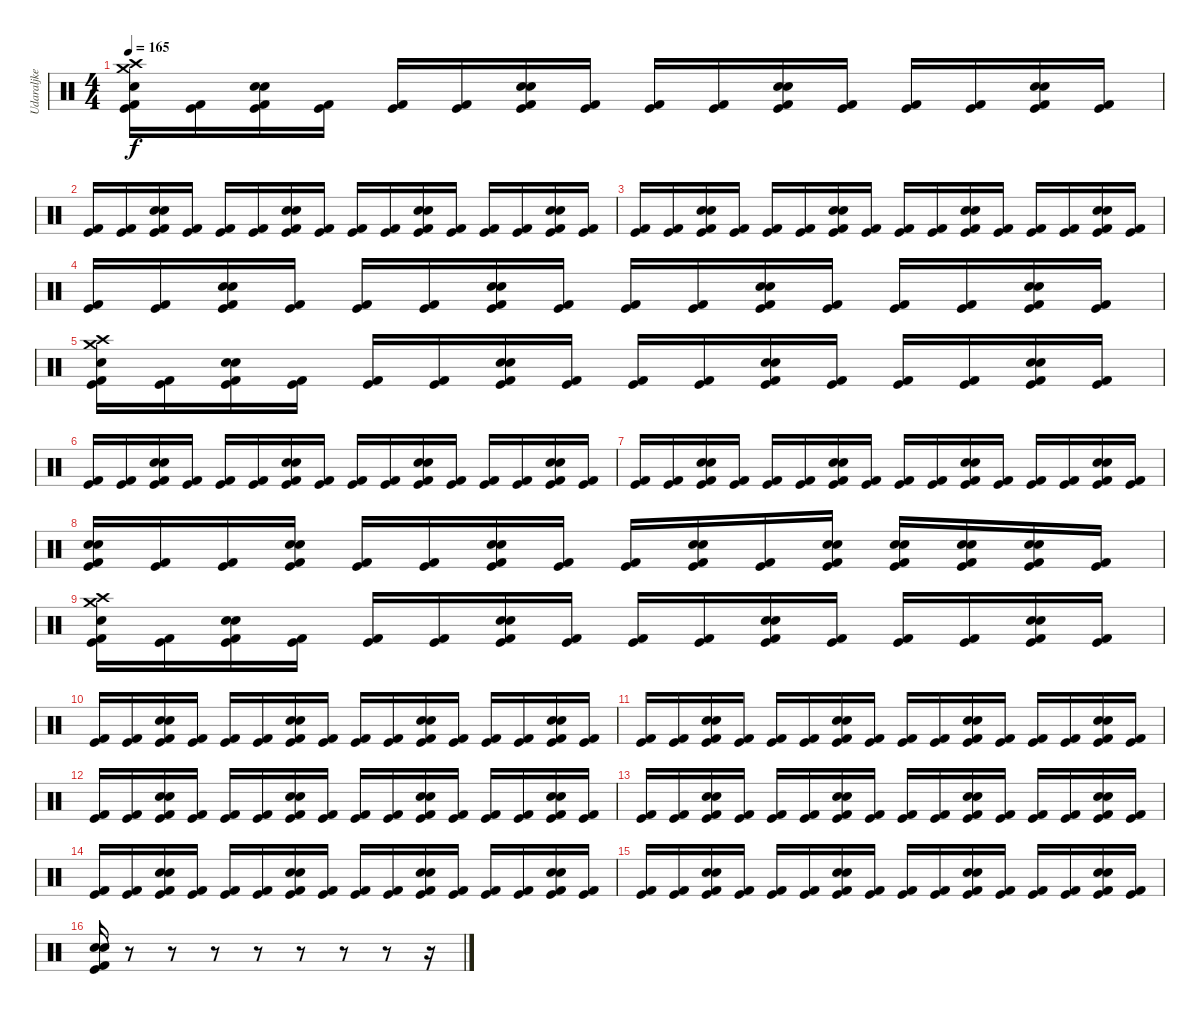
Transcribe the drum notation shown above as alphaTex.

\track ("Udaraljke" "Udaraljke") {instrument percussion}
\staff {score}
\articulation defaults
\ts (4 4)
\tempo 165
\clef neutral
\ks c
("Crash medium (hit)" "Crash high (hit)" "Snare (hit) 2" "Kick (hit) 2" "Kick (hit)").16{dy f} ("Kick (hit) 2" "Kick (hit)").16 ("Snare (hit) 2" "Snare (hit) 2" "Kick (hit) 2" "Kick (hit)").16 ("Kick (hit) 2" "Kick (hit)").16 ("Kick (hit) 2" "Kick (hit)").16 ("Kick (hit) 2" "Kick (hit)").16 ("Snare (hit) 2" "Snare (hit) 2" "Kick (hit) 2" "Kick (hit)").16 ("Kick (hit) 2" "Kick (hit)").16 ("Kick (hit) 2" "Kick (hit)").16 ("Kick (hit) 2" "Kick (hit)").16 ("Snare (hit) 2" "Snare (hit) 2" "Kick (hit) 2" "Kick (hit)").16 ("Kick (hit) 2" "Kick (hit)").16 ("Kick (hit) 2" "Kick (hit)").16 ("Kick (hit) 2" "Kick (hit)").16 ("Snare (hit) 2" "Snare (hit) 2" "Kick (hit) 2" "Kick (hit)").16 ("Kick (hit) 2" "Kick (hit)").16 |
("Kick (hit) 2" "Kick (hit)").16 ("Kick (hit) 2" "Kick (hit)").16 ("Snare (hit) 2" "Snare (hit) 2" "Kick (hit) 2" "Kick (hit)").16 ("Kick (hit) 2" "Kick (hit)").16 ("Kick (hit) 2" "Kick (hit)").16 ("Kick (hit) 2" "Kick (hit)").16 ("Snare (hit) 2" "Snare (hit) 2" "Kick (hit) 2" "Kick (hit)").16 ("Kick (hit) 2" "Kick (hit)").16 ("Kick (hit) 2" "Kick (hit)").16 ("Kick (hit) 2" "Kick (hit)").16 ("Snare (hit) 2" "Snare (hit) 2" "Kick (hit) 2" "Kick (hit)").16 ("Kick (hit) 2" "Kick (hit)").16 ("Kick (hit) 2" "Kick (hit)").16 ("Kick (hit) 2" "Kick (hit)").16 ("Snare (hit) 2" "Snare (hit) 2" "Kick (hit) 2" "Kick (hit)").16 ("Kick (hit) 2" "Kick (hit)").16 |
("Kick (hit) 2" "Kick (hit)").16 ("Kick (hit) 2" "Kick (hit)").16 ("Snare (hit) 2" "Snare (hit) 2" "Kick (hit) 2" "Kick (hit)").16 ("Kick (hit) 2" "Kick (hit)").16 ("Kick (hit) 2" "Kick (hit)").16 ("Kick (hit) 2" "Kick (hit)").16 ("Snare (hit) 2" "Snare (hit) 2" "Kick (hit) 2" "Kick (hit)").16 ("Kick (hit) 2" "Kick (hit)").16 ("Kick (hit) 2" "Kick (hit)").16 ("Kick (hit) 2" "Kick (hit)").16 ("Snare (hit) 2" "Snare (hit) 2" "Kick (hit) 2" "Kick (hit)").16 ("Kick (hit) 2" "Kick (hit)").16 ("Kick (hit) 2" "Kick (hit)").16 ("Kick (hit) 2" "Kick (hit)").16 ("Snare (hit) 2" "Snare (hit) 2" "Kick (hit) 2" "Kick (hit)").16 ("Kick (hit) 2" "Kick (hit)").16 |
("Kick (hit) 2" "Kick (hit)").16 ("Kick (hit) 2" "Kick (hit)").16 ("Snare (hit) 2" "Snare (hit) 2" "Kick (hit) 2" "Kick (hit)").16 ("Kick (hit) 2" "Kick (hit)").16 ("Kick (hit) 2" "Kick (hit)").16 ("Kick (hit) 2" "Kick (hit)").16 ("Snare (hit) 2" "Snare (hit) 2" "Kick (hit) 2" "Kick (hit)").16 ("Kick (hit) 2" "Kick (hit)").16 ("Kick (hit) 2" "Kick (hit)").16 ("Kick (hit) 2" "Kick (hit)").16 ("Snare (hit) 2" "Snare (hit) 2" "Kick (hit) 2" "Kick (hit)").16 ("Kick (hit) 2" "Kick (hit)").16 ("Kick (hit) 2" "Kick (hit)").16 ("Kick (hit) 2" "Kick (hit)").16 ("Snare (hit) 2" "Snare (hit) 2" "Kick (hit) 2" "Kick (hit)").16 ("Kick (hit) 2" "Kick (hit)").16 |
("Crash medium (hit)" "Crash high (hit)" "Snare (hit) 2" "Kick (hit) 2" "Kick (hit)").16 ("Kick (hit) 2" "Kick (hit)").16 ("Snare (hit) 2" "Snare (hit) 2" "Kick (hit) 2" "Kick (hit)").16 ("Kick (hit) 2" "Kick (hit)").16 ("Kick (hit) 2" "Kick (hit)").16 ("Kick (hit) 2" "Kick (hit)").16 ("Snare (hit) 2" "Snare (hit) 2" "Kick (hit) 2" "Kick (hit)").16 ("Kick (hit) 2" "Kick (hit)").16 ("Kick (hit) 2" "Kick (hit)").16 ("Kick (hit) 2" "Kick (hit)").16 ("Snare (hit) 2" "Snare (hit) 2" "Kick (hit) 2" "Kick (hit)").16 ("Kick (hit) 2" "Kick (hit)").16 ("Kick (hit) 2" "Kick (hit)").16 ("Kick (hit) 2" "Kick (hit)").16 ("Snare (hit) 2" "Snare (hit) 2" "Kick (hit) 2" "Kick (hit)").16 ("Kick (hit) 2" "Kick (hit)").16 |
("Kick (hit) 2" "Kick (hit)").16 ("Kick (hit) 2" "Kick (hit)").16 ("Snare (hit) 2" "Snare (hit) 2" "Kick (hit) 2" "Kick (hit)").16 ("Kick (hit) 2" "Kick (hit)").16 ("Kick (hit) 2" "Kick (hit)").16 ("Kick (hit) 2" "Kick (hit)").16 ("Snare (hit) 2" "Snare (hit) 2" "Kick (hit) 2" "Kick (hit)").16 ("Kick (hit) 2" "Kick (hit)").16 ("Kick (hit) 2" "Kick (hit)").16 ("Kick (hit) 2" "Kick (hit)").16 ("Snare (hit) 2" "Snare (hit) 2" "Kick (hit) 2" "Kick (hit)").16 ("Kick (hit) 2" "Kick (hit)").16 ("Kick (hit) 2" "Kick (hit)").16 ("Kick (hit) 2" "Kick (hit)").16 ("Snare (hit) 2" "Snare (hit) 2" "Kick (hit) 2" "Kick (hit)").16 ("Kick (hit) 2" "Kick (hit)").16 |
("Kick (hit) 2" "Kick (hit)").16 ("Kick (hit) 2" "Kick (hit)").16 ("Snare (hit) 2" "Snare (hit) 2" "Kick (hit) 2" "Kick (hit)").16 ("Kick (hit) 2" "Kick (hit)").16 ("Kick (hit) 2" "Kick (hit)").16 ("Kick (hit) 2" "Kick (hit)").16 ("Snare (hit) 2" "Snare (hit) 2" "Kick (hit) 2" "Kick (hit)").16 ("Kick (hit) 2" "Kick (hit)").16 ("Kick (hit) 2" "Kick (hit)").16 ("Kick (hit) 2" "Kick (hit)").16 ("Snare (hit) 2" "Snare (hit) 2" "Kick (hit) 2" "Kick (hit)").16 ("Kick (hit) 2" "Kick (hit)").16 ("Kick (hit) 2" "Kick (hit)").16 ("Kick (hit) 2" "Kick (hit)").16 ("Snare (hit) 2" "Snare (hit) 2" "Kick (hit) 2" "Kick (hit)").16 ("Kick (hit) 2" "Kick (hit)").16 |
("Snare (hit) 2" "Snare (hit) 2" "Kick (hit) 2" "Kick (hit)").16 ("Kick (hit) 2" "Kick (hit)").16 ("Kick (hit) 2" "Kick (hit)").16 ("Snare (hit) 2" "Snare (hit) 2" "Kick (hit) 2" "Kick (hit)").16 ("Kick (hit) 2" "Kick (hit)").16 ("Kick (hit) 2" "Kick (hit)").16 ("Snare (hit) 2" "Snare (hit) 2" "Kick (hit) 2" "Kick (hit)").16 ("Kick (hit) 2" "Kick (hit)").16 ("Kick (hit) 2" "Kick (hit)").16 ("Snare (hit) 2" "Snare (hit) 2" "Kick (hit) 2" "Kick (hit)").16 ("Kick (hit) 2" "Kick (hit)").16 ("Snare (hit) 2" "Snare (hit) 2" "Kick (hit) 2" "Kick (hit)").16 ("Snare (hit) 2" "Snare (hit) 2" "Kick (hit) 2" "Kick (hit)").16 ("Snare (hit) 2" "Snare (hit) 2" "Kick (hit) 2" "Kick (hit)").16 ("Snare (hit) 2" "Snare (hit) 2" "Kick (hit) 2" "Kick (hit)").16 ("Kick (hit) 2" "Kick (hit)").16 |
("Crash medium (hit)" "Crash high (hit)" "Snare (hit) 2" "Kick (hit) 2" "Kick (hit)").16 ("Kick (hit) 2" "Kick (hit)").16 ("Snare (hit) 2" "Snare (hit) 2" "Kick (hit) 2" "Kick (hit)").16 ("Kick (hit) 2" "Kick (hit)").16 ("Kick (hit) 2" "Kick (hit)").16 ("Kick (hit) 2" "Kick (hit)").16 ("Snare (hit) 2" "Snare (hit) 2" "Kick (hit) 2" "Kick (hit)").16 ("Kick (hit) 2" "Kick (hit)").16 ("Kick (hit) 2" "Kick (hit)").16 ("Kick (hit) 2" "Kick (hit)").16 ("Snare (hit) 2" "Snare (hit) 2" "Kick (hit) 2" "Kick (hit)").16 ("Kick (hit) 2" "Kick (hit)").16 ("Kick (hit) 2" "Kick (hit)").16 ("Kick (hit) 2" "Kick (hit)").16 ("Snare (hit) 2" "Snare (hit) 2" "Kick (hit) 2" "Kick (hit)").16 ("Kick (hit) 2" "Kick (hit)").16 |
("Kick (hit) 2" "Kick (hit)").16 ("Kick (hit) 2" "Kick (hit)").16 ("Snare (hit) 2" "Snare (hit) 2" "Kick (hit) 2" "Kick (hit)").16 ("Kick (hit) 2" "Kick (hit)").16 ("Kick (hit) 2" "Kick (hit)").16 ("Kick (hit) 2" "Kick (hit)").16 ("Snare (hit) 2" "Snare (hit) 2" "Kick (hit) 2" "Kick (hit)").16 ("Kick (hit) 2" "Kick (hit)").16 ("Kick (hit) 2" "Kick (hit)").16 ("Kick (hit) 2" "Kick (hit)").16 ("Snare (hit) 2" "Snare (hit) 2" "Kick (hit) 2" "Kick (hit)").16 ("Kick (hit) 2" "Kick (hit)").16 ("Kick (hit) 2" "Kick (hit)").16 ("Kick (hit) 2" "Kick (hit)").16 ("Snare (hit) 2" "Snare (hit) 2" "Kick (hit) 2" "Kick (hit)").16 ("Kick (hit) 2" "Kick (hit)").16 |
("Kick (hit) 2" "Kick (hit)").16 ("Kick (hit) 2" "Kick (hit)").16 ("Snare (hit) 2" "Snare (hit) 2" "Kick (hit) 2" "Kick (hit)").16 ("Kick (hit) 2" "Kick (hit)").16 ("Kick (hit) 2" "Kick (hit)").16 ("Kick (hit) 2" "Kick (hit)").16 ("Snare (hit) 2" "Snare (hit) 2" "Kick (hit) 2" "Kick (hit)").16 ("Kick (hit) 2" "Kick (hit)").16 ("Kick (hit) 2" "Kick (hit)").16 ("Kick (hit) 2" "Kick (hit)").16 ("Snare (hit) 2" "Snare (hit) 2" "Kick (hit) 2" "Kick (hit)").16 ("Kick (hit) 2" "Kick (hit)").16 ("Kick (hit) 2" "Kick (hit)").16 ("Kick (hit) 2" "Kick (hit)").16 ("Snare (hit) 2" "Snare (hit) 2" "Kick (hit) 2" "Kick (hit)").16 ("Kick (hit) 2" "Kick (hit)").16 |
("Kick (hit) 2" "Kick (hit)").16 ("Kick (hit) 2" "Kick (hit)").16 ("Snare (hit) 2" "Snare (hit) 2" "Kick (hit) 2" "Kick (hit)").16 ("Kick (hit) 2" "Kick (hit)").16 ("Kick (hit) 2" "Kick (hit)").16 ("Kick (hit) 2" "Kick (hit)").16 ("Snare (hit) 2" "Snare (hit) 2" "Kick (hit) 2" "Kick (hit)").16 ("Kick (hit) 2" "Kick (hit)").16 ("Kick (hit) 2" "Kick (hit)").16 ("Kick (hit) 2" "Kick (hit)").16 ("Snare (hit) 2" "Snare (hit) 2" "Kick (hit) 2" "Kick (hit)").16 ("Kick (hit) 2" "Kick (hit)").16 ("Kick (hit) 2" "Kick (hit)").16 ("Kick (hit) 2" "Kick (hit)").16 ("Snare (hit) 2" "Snare (hit) 2" "Kick (hit) 2" "Kick (hit)").16 ("Kick (hit) 2" "Kick (hit)").16 |
("Kick (hit) 2" "Kick (hit)").16 ("Kick (hit) 2" "Kick (hit)").16 ("Snare (hit) 2" "Snare (hit) 2" "Kick (hit) 2" "Kick (hit)").16 ("Kick (hit) 2" "Kick (hit)").16 ("Kick (hit) 2" "Kick (hit)").16 ("Kick (hit) 2" "Kick (hit)").16 ("Snare (hit) 2" "Snare (hit) 2" "Kick (hit) 2" "Kick (hit)").16 ("Kick (hit) 2" "Kick (hit)").16 ("Kick (hit) 2" "Kick (hit)").16 ("Kick (hit) 2" "Kick (hit)").16 ("Snare (hit) 2" "Snare (hit) 2" "Kick (hit) 2" "Kick (hit)").16 ("Kick (hit) 2" "Kick (hit)").16 ("Kick (hit) 2" "Kick (hit)").16 ("Kick (hit) 2" "Kick (hit)").16 ("Snare (hit) 2" "Snare (hit) 2" "Kick (hit) 2" "Kick (hit)").16 ("Kick (hit) 2" "Kick (hit)").16 |
("Kick (hit) 2" "Kick (hit)").16 ("Kick (hit) 2" "Kick (hit)").16 ("Snare (hit) 2" "Snare (hit) 2" "Kick (hit) 2" "Kick (hit)").16 ("Kick (hit) 2" "Kick (hit)").16 ("Kick (hit) 2" "Kick (hit)").16 ("Kick (hit) 2" "Kick (hit)").16 ("Snare (hit) 2" "Snare (hit) 2" "Kick (hit) 2" "Kick (hit)").16 ("Kick (hit) 2" "Kick (hit)").16 ("Kick (hit) 2" "Kick (hit)").16 ("Kick (hit) 2" "Kick (hit)").16 ("Snare (hit) 2" "Snare (hit) 2" "Kick (hit) 2" "Kick (hit)").16 ("Kick (hit) 2" "Kick (hit)").16 ("Kick (hit) 2" "Kick (hit)").16 ("Kick (hit) 2" "Kick (hit)").16 ("Snare (hit) 2" "Snare (hit) 2" "Kick (hit) 2" "Kick (hit)").16 ("Kick (hit) 2" "Kick (hit)").16 |
("Kick (hit) 2" "Kick (hit)").16 ("Kick (hit) 2" "Kick (hit)").16 ("Snare (hit) 2" "Snare (hit) 2" "Kick (hit) 2" "Kick (hit)").16 ("Kick (hit) 2" "Kick (hit)").16 ("Kick (hit) 2" "Kick (hit)").16 ("Kick (hit) 2" "Kick (hit)").16 ("Snare (hit) 2" "Snare (hit) 2" "Kick (hit) 2" "Kick (hit)").16 ("Kick (hit) 2" "Kick (hit)").16 ("Kick (hit) 2" "Kick (hit)").16 ("Kick (hit) 2" "Kick (hit)").16 ("Snare (hit) 2" "Snare (hit) 2" "Kick (hit) 2" "Kick (hit)").16 ("Kick (hit) 2" "Kick (hit)").16 ("Kick (hit) 2" "Kick (hit)").16 ("Kick (hit) 2" "Kick (hit)").16 ("Snare (hit) 2" "Snare (hit) 2" "Kick (hit) 2" "Kick (hit)").16 ("Kick (hit) 2" "Kick (hit)").16 |
("Snare (hit) 2" "Snare (hit) 2" "Kick (hit) 2" "Kick (hit)").16 r.8 r.8 r.8 r.8 r.8 r.8 r.8 r.16
